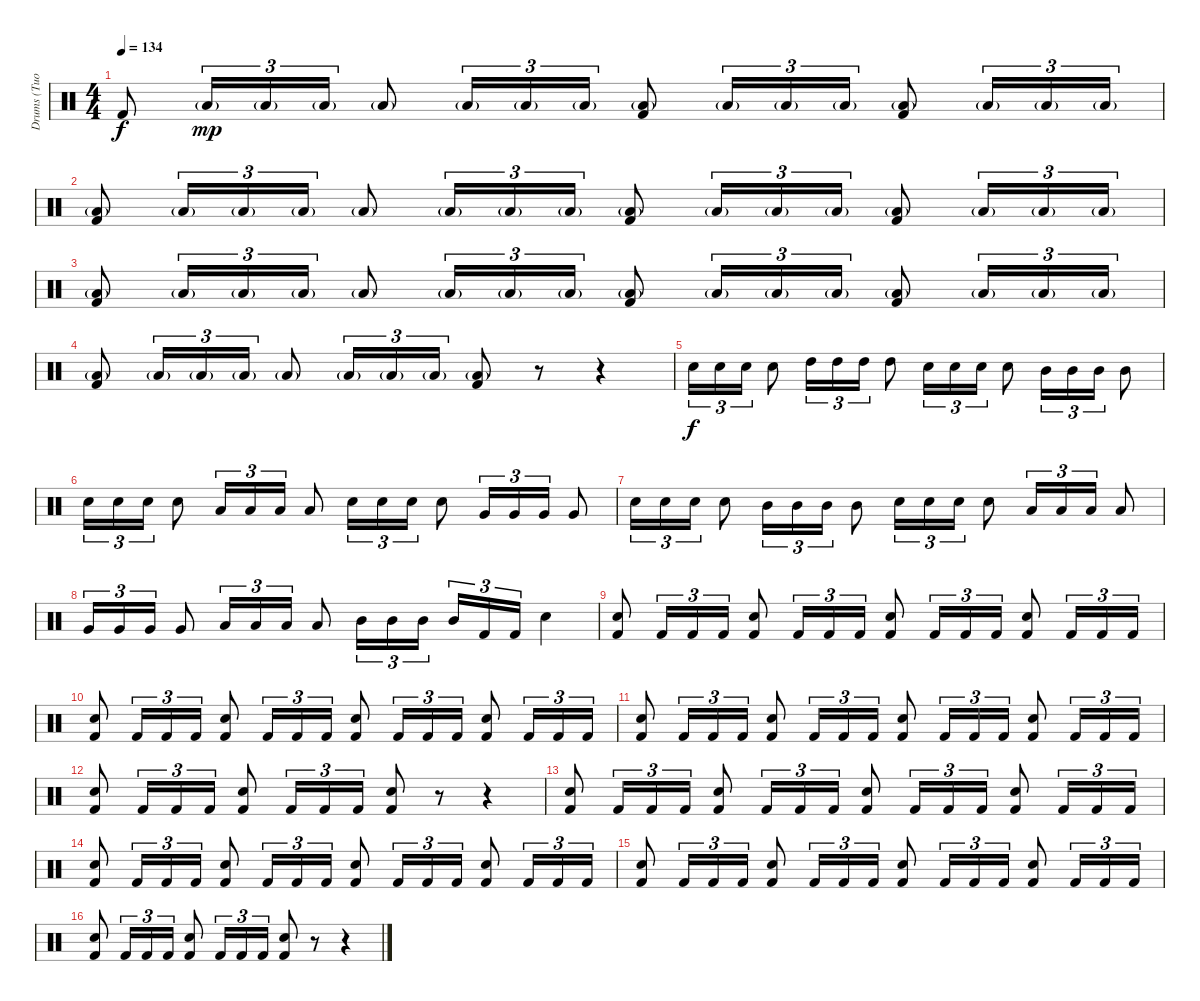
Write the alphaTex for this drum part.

\track ("Drums (Tuomo Lassila)" "Drums (Tuo") {instrument percussion}
\staff {score}
\articulation defaults
\ts (4 4)
\tempo 134
\clef neutral
\ks c "Kick (hit) 2".8{dy f} "Low Tom (hit)"{g}.16{tu (3 2) dy mp} "Low Tom (hit)"{g}.16{tu (3 2)} "Low Tom (hit)"{g}.16{tu (3 2)} "Low Tom (hit)"{g}.8 "Low Tom (hit)"{g}.16{tu (3 2)} "Low Tom (hit)"{g}.16{tu (3 2)} "Low Tom (hit)"{g}.16{tu (3 2)}
("Low Tom (hit)"{g} "Kick (hit) 2").8 "Low Tom (hit)"{g}.16{tu (3 2)} "Low Tom (hit)"{g}.16{tu (3 2)} "Low Tom (hit)"{g}.16{tu (3 2)} ("Low Tom (hit)"{g} "Kick (hit) 2").8 "Low Tom (hit)"{g}.16{tu (3 2)} "Low Tom (hit)"{g}.16{tu (3 2)} "Low Tom (hit)"{g}.16{tu (3 2)} |
("Low Tom (hit)"{g} "Kick (hit) 2").8 "Low Tom (hit)"{g}.16{tu (3 2)} "Low Tom (hit)"{g}.16{tu (3 2)} "Low Tom (hit)"{g}.16{tu (3 2)} "Low Tom (hit)"{g}.8 "Low Tom (hit)"{g}.16{tu (3 2)} "Low Tom (hit)"{g}.16{tu (3 2)} "Low Tom (hit)"{g}.16{tu (3 2)} ("Low Tom (hit)"{g} "Kick (hit) 2").8 "Low Tom (hit)"{g}.16{tu (3 2)} "Low Tom (hit)"{g}.16{tu (3 2)} "Low Tom (hit)"{g}.16{tu (3 2)} ("Low Tom (hit)"{g} "Kick (hit) 2").8 "Low Tom (hit)"{g}.16{tu (3 2)} "Low Tom (hit)"{g}.16{tu (3 2)} "Low Tom (hit)"{g}.16{tu (3 2)} |
("Low Tom (hit)"{g} "Kick (hit) 2").8 "Low Tom (hit)"{g}.16{tu (3 2)} "Low Tom (hit)"{g}.16{tu (3 2)} "Low Tom (hit)"{g}.16{tu (3 2)} "Low Tom (hit)"{g}.8 "Low Tom (hit)"{g}.16{tu (3 2)} "Low Tom (hit)"{g}.16{tu (3 2)} "Low Tom (hit)"{g}.16{tu (3 2)} ("Low Tom (hit)"{g} "Kick (hit) 2").8 "Low Tom (hit)"{g}.16{tu (3 2)} "Low Tom (hit)"{g}.16{tu (3 2)} "Low Tom (hit)"{g}.16{tu (3 2)} ("Low Tom (hit)"{g} "Kick (hit) 2").8 "Low Tom (hit)"{g}.16{tu (3 2)} "Low Tom (hit)"{g}.16{tu (3 2)} "Low Tom (hit)"{g}.16{tu (3 2)} |
("Low Tom (hit)"{g} "Kick (hit) 2").8 "Low Tom (hit)"{g}.16{tu (3 2)} "Low Tom (hit)"{g}.16{tu (3 2)} "Low Tom (hit)"{g}.16{tu (3 2)} "Low Tom (hit)"{g}.8 "Low Tom (hit)"{g}.16{tu (3 2)} "Low Tom (hit)"{g}.16{tu (3 2)} "Low Tom (hit)"{g}.16{tu (3 2)} ("Low Tom (hit)"{g} "Kick (hit) 2").8 r.8 r.4 |
"Snare (hit) 2".16{tu (3 2) dy f} "Snare (hit) 2".16{tu (3 2)} "Snare (hit) 2".16{tu (3 2)} "Snare (hit) 2".8 "High Tom (hit)".16{tu (3 2)} "High Tom (hit)".16{tu (3 2)} "High Tom (hit)".16{tu (3 2)} "High Tom (hit)".8 "Snare (hit) 2".16{tu (3 2)} "Snare (hit) 2".16{tu (3 2)} "Snare (hit) 2".16{tu (3 2)} "Snare (hit) 2".8 "Mid Tom (hit)".16{tu (3 2)} "Mid Tom (hit)".16{tu (3 2)} "Mid Tom (hit)".16{tu (3 2)} "Mid Tom (hit)".8 |
"Snare (hit) 2".16{tu (3 2)} "Snare (hit) 2".16{tu (3 2)} "Snare (hit) 2".16{tu (3 2)} "Snare (hit) 2".8 "Low Tom (hit)".16{tu (3 2)} "Low Tom (hit)".16{tu (3 2)} "Low Tom (hit)".16{tu (3 2)} "Low Tom (hit)".8 "Snare (hit) 2".16{tu (3 2)} "Snare (hit) 2".16{tu (3 2)} "Snare (hit) 2".16{tu (3 2)} "Snare (hit) 2".8 "Very Low Tom (hit)".16{tu (3 2)} "Very Low Tom (hit)".16{tu (3 2)} "Very Low Tom (hit)".16{tu (3 2)} "Very Low Tom (hit)".8 |
"Snare (hit) 2".16{tu (3 2)} "Snare (hit) 2".16{tu (3 2)} "Snare (hit) 2".16{tu (3 2)} "Snare (hit) 2".8 "Mid Tom (hit)".16{tu (3 2)} "Mid Tom (hit)".16{tu (3 2)} "Mid Tom (hit)".16{tu (3 2)} "Mid Tom (hit)".8 "Snare (hit) 2".16{tu (3 2)} "Snare (hit) 2".16{tu (3 2)} "Snare (hit) 2".16{tu (3 2)} "Snare (hit) 2".8 "Low Tom (hit)".16{tu (3 2)} "Low Tom (hit)".16{tu (3 2)} "Low Tom (hit)".16{tu (3 2)} "Low Tom (hit)".8 |
"Very Low Tom (hit)".16{tu (3 2)} "Very Low Tom (hit)".16{tu (3 2)} "Very Low Tom (hit)".16{tu (3 2)} "Very Low Tom (hit)".8 "Low Tom (hit)".16{tu (3 2)} "Low Tom (hit)".16{tu (3 2)} "Low Tom (hit)".16{tu (3 2)} "Low Tom (hit)".8 "Mid Tom (hit)".16{tu (3 2)} "Mid Tom (hit)".16{tu (3 2)} "Mid Tom (hit)".16{tu (3 2)} "Mid Tom (hit)".16{tu (3 2)} "Kick (hit) 2".16{tu (3 2)} "Kick (hit) 2".16{tu (3 2)} "Electric Snare (hit)".4 |
("Snare (hit) 2" "Kick (hit) 2").8 "Kick (hit) 2".16{tu (3 2)} "Kick (hit) 2".16{tu (3 2)} "Kick (hit) 2".16{tu (3 2)} ("Snare (hit) 2" "Kick (hit) 2").8 "Kick (hit) 2".16{tu (3 2)} "Kick (hit) 2".16{tu (3 2)} "Kick (hit) 2".16{tu (3 2)} ("Snare (hit) 2" "Kick (hit) 2").8 "Kick (hit) 2".16{tu (3 2)} "Kick (hit) 2".16{tu (3 2)} "Kick (hit) 2".16{tu (3 2)} ("Snare (hit) 2" "Kick (hit) 2").8 "Kick (hit) 2".16{tu (3 2)} "Kick (hit) 2".16{tu (3 2)} "Kick (hit) 2".16{tu (3 2)} |
("Snare (hit) 2" "Kick (hit) 2").8 "Kick (hit) 2".16{tu (3 2)} "Kick (hit) 2".16{tu (3 2)} "Kick (hit) 2".16{tu (3 2)} ("Snare (hit) 2" "Kick (hit) 2").8 "Kick (hit) 2".16{tu (3 2)} "Kick (hit) 2".16{tu (3 2)} "Kick (hit) 2".16{tu (3 2)} ("Snare (hit) 2" "Kick (hit) 2").8 "Kick (hit) 2".16{tu (3 2)} "Kick (hit) 2".16{tu (3 2)} "Kick (hit) 2".16{tu (3 2)} ("Snare (hit) 2" "Kick (hit) 2").8 "Kick (hit) 2".16{tu (3 2)} "Kick (hit) 2".16{tu (3 2)} "Kick (hit) 2".16{tu (3 2)} |
("Snare (hit) 2" "Kick (hit) 2").8 "Kick (hit) 2".16{tu (3 2)} "Kick (hit) 2".16{tu (3 2)} "Kick (hit) 2".16{tu (3 2)} ("Snare (hit) 2" "Kick (hit) 2").8 "Kick (hit) 2".16{tu (3 2)} "Kick (hit) 2".16{tu (3 2)} "Kick (hit) 2".16{tu (3 2)} ("Snare (hit) 2" "Kick (hit) 2").8 "Kick (hit) 2".16{tu (3 2)} "Kick (hit) 2".16{tu (3 2)} "Kick (hit) 2".16{tu (3 2)} ("Snare (hit) 2" "Kick (hit) 2").8 "Kick (hit) 2".16{tu (3 2)} "Kick (hit) 2".16{tu (3 2)} "Kick (hit) 2".16{tu (3 2)} |
("Snare (hit) 2" "Kick (hit) 2").8 "Kick (hit) 2".16{tu (3 2)} "Kick (hit) 2".16{tu (3 2)} "Kick (hit) 2".16{tu (3 2)} ("Snare (hit) 2" "Kick (hit) 2").8 "Kick (hit) 2".16{tu (3 2)} "Kick (hit) 2".16{tu (3 2)} "Kick (hit) 2".16{tu (3 2)} ("Snare (hit) 2" "Kick (hit) 2").8 r.8 r.4 |
("Snare (hit) 2" "Kick (hit) 2").8 "Kick (hit) 2".16{tu (3 2)} "Kick (hit) 2".16{tu (3 2)} "Kick (hit) 2".16{tu (3 2)} ("Snare (hit) 2" "Kick (hit) 2").8 "Kick (hit) 2".16{tu (3 2)} "Kick (hit) 2".16{tu (3 2)} "Kick (hit) 2".16{tu (3 2)} ("Snare (hit) 2" "Kick (hit) 2").8 "Kick (hit) 2".16{tu (3 2)} "Kick (hit) 2".16{tu (3 2)} "Kick (hit) 2".16{tu (3 2)} ("Snare (hit) 2" "Kick (hit) 2").8 "Kick (hit) 2".16{tu (3 2)} "Kick (hit) 2".16{tu (3 2)} "Kick (hit) 2".16{tu (3 2)} |
("Snare (hit) 2" "Kick (hit) 2").8 "Kick (hit) 2".16{tu (3 2)} "Kick (hit) 2".16{tu (3 2)} "Kick (hit) 2".16{tu (3 2)} ("Snare (hit) 2" "Kick (hit) 2").8 "Kick (hit) 2".16{tu (3 2)} "Kick (hit) 2".16{tu (3 2)} "Kick (hit) 2".16{tu (3 2)} ("Snare (hit) 2" "Kick (hit) 2").8 "Kick (hit) 2".16{tu (3 2)} "Kick (hit) 2".16{tu (3 2)} "Kick (hit) 2".16{tu (3 2)} ("Snare (hit) 2" "Kick (hit) 2").8 "Kick (hit) 2".16{tu (3 2)} "Kick (hit) 2".16{tu (3 2)} "Kick (hit) 2".16{tu (3 2)} |
("Snare (hit) 2" "Kick (hit) 2").8 "Kick (hit) 2".16{tu (3 2)} "Kick (hit) 2".16{tu (3 2)} "Kick (hit) 2".16{tu (3 2)} ("Snare (hit) 2" "Kick (hit) 2").8 "Kick (hit) 2".16{tu (3 2)} "Kick (hit) 2".16{tu (3 2)} "Kick (hit) 2".16{tu (3 2)} ("Snare (hit) 2" "Kick (hit) 2").8 "Kick (hit) 2".16{tu (3 2)} "Kick (hit) 2".16{tu (3 2)} "Kick (hit) 2".16{tu (3 2)} ("Snare (hit) 2" "Kick (hit) 2").8 "Kick (hit) 2".16{tu (3 2)} "Kick (hit) 2".16{tu (3 2)} "Kick (hit) 2".16{tu (3 2)} |
("Snare (hit) 2" "Kick (hit) 2").8 "Kick (hit) 2".16{tu (3 2)} "Kick (hit) 2".16{tu (3 2)} "Kick (hit) 2".16{tu (3 2)} ("Snare (hit) 2" "Kick (hit) 2").8 "Kick (hit) 2".16{tu (3 2)} "Kick (hit) 2".16{tu (3 2)} "Kick (hit) 2".16{tu (3 2)} ("Snare (hit) 2" "Kick (hit) 2").8 r.8 r.4
